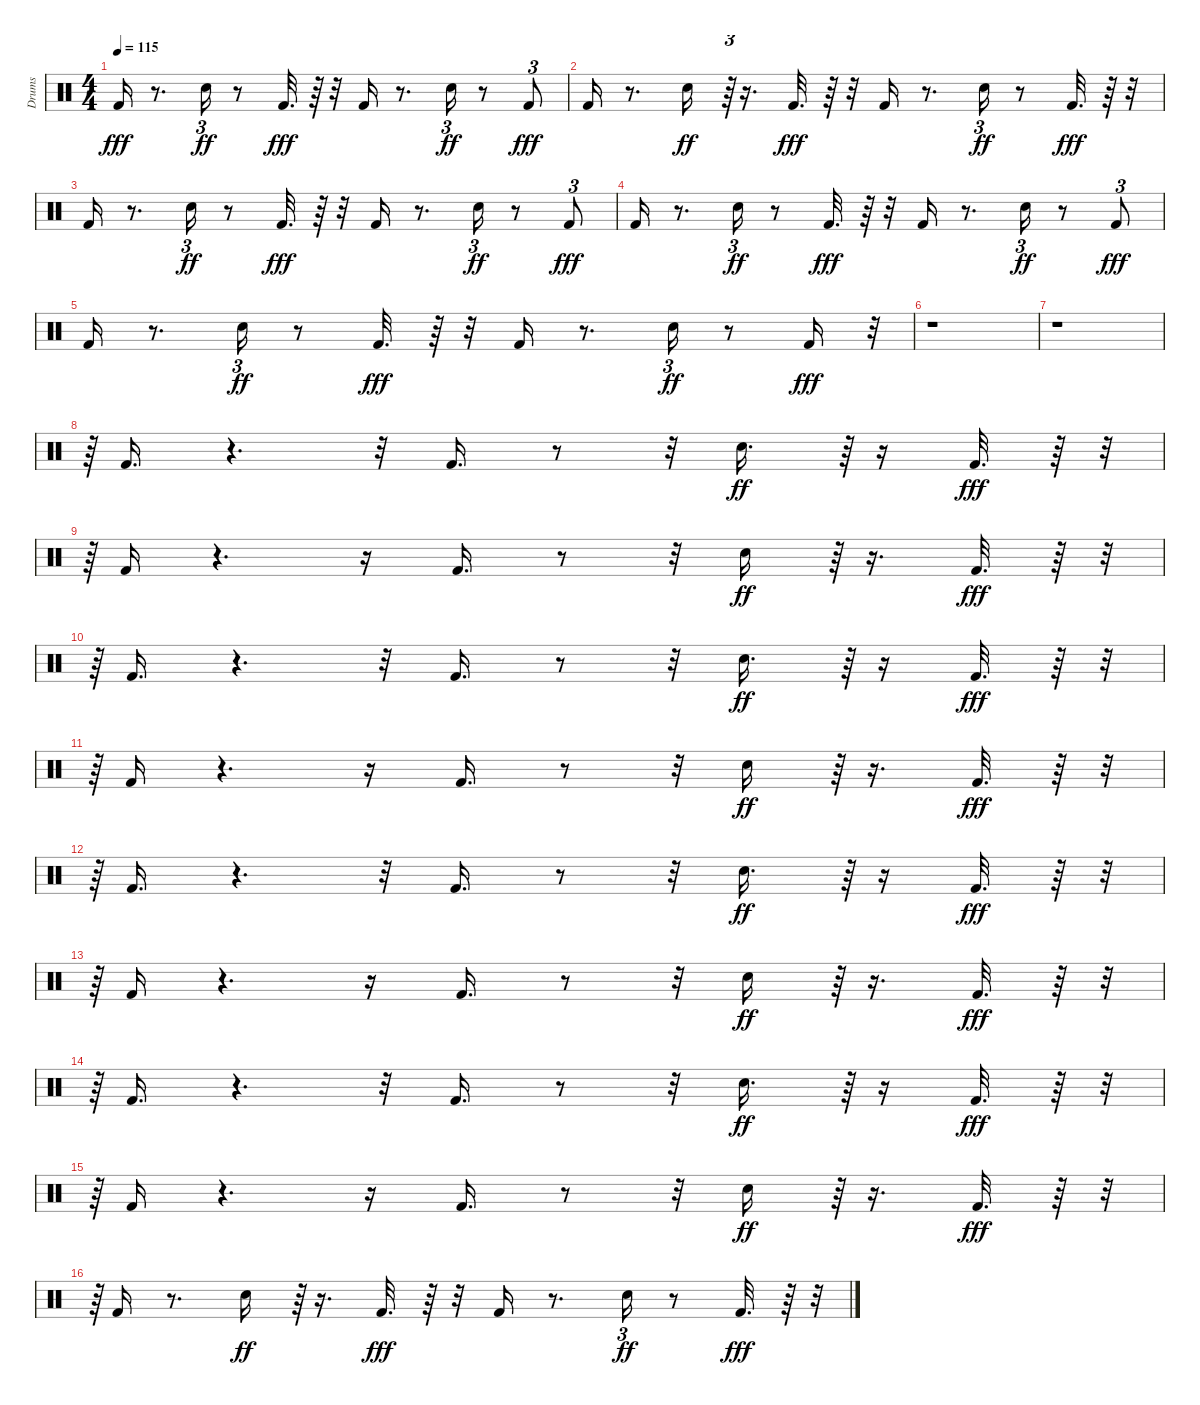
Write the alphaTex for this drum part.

\track ("Drums" "Drums") {instrument percussion}
\staff {score}
\articulation defaults
\ts (4 4)
\tempo 115
\clef neutral
\ks c "Kick (hit) 2".16{dy fff}
r.8{d} "Electric Snare (hit)".16{tu (3 2) dy ff} r.8 "Kick (hit) 2".32{d dy fff} r.64 r.32 "Kick (hit) 2".16 r.8{d} "Electric Snare (hit)".16{tu (3 2) dy ff} r.8 "Kick (hit) 2".8{tu (3 2) dy fff} |
"Kick (hit) 2".16 r.8{d} "Electric Snare (hit)".16{dy ff} r.64{tu (3 2)} r.16{d} "Kick (hit) 2".32{d dy fff} r.64 r.32 "Kick (hit) 2".16 r.8{d} "Electric Snare (hit)".16{tu (3 2) dy ff} r.8 "Kick (hit) 2".32{d dy fff} r.64 r.32 |
"Kick (hit) 2".16 r.8{d} "Electric Snare (hit)".16{tu (3 2) dy ff} r.8 "Kick (hit) 2".32{d dy fff} r.64 r.32 "Kick (hit) 2".16 r.8{d} "Electric Snare (hit)".16{tu (3 2) dy ff} r.8 "Kick (hit) 2".8{tu (3 2) dy fff} |
"Kick (hit) 2".16 r.8{d} "Electric Snare (hit)".16{tu (3 2) dy ff} r.8 "Kick (hit) 2".32{d dy fff} r.64 r.32 "Kick (hit) 2".16 r.8{d} "Electric Snare (hit)".16{tu (3 2) dy ff} r.8 "Kick (hit) 2".8{tu (3 2) dy fff} |
"Kick (hit) 2".16 r.8{d} "Electric Snare (hit)".16{tu (3 2) dy ff} r.8 "Kick (hit) 2".32{d dy fff} r.64 r.32 "Kick (hit) 2".16 r.8{d} "Electric Snare (hit)".16{tu (3 2) dy ff} r.8 "Kick (hit) 2".16{dy fff} r.32{tu (3 2)} |
r.1 |
r.1 |
r.64{tu (3 2)} "Kick (hit) 2".16{d} r.4{d} r.32 "Kick (hit) 2".16{d} r.8 r.32 "Electric Snare (hit)".16{d dy ff} r.64{tu (3 2)} r.16 "Kick (hit) 2".32{d dy fff} r.64 r.32{tu (3 2)} |
r.64{tu (3 2)} "Kick (hit) 2".16 r.4{d} r.16 "Kick (hit) 2".16{d} r.8 r.32 "Electric Snare (hit)".16{dy ff} r.64{tu (3 2)} r.16{d} "Kick (hit) 2".32{d dy fff} r.64 r.32{tu (3 2)} |
r.64{tu (3 2)} "Kick (hit) 2".16{d} r.4{d} r.32 "Kick (hit) 2".16{d} r.8 r.32 "Electric Snare (hit)".16{d dy ff} r.64{tu (3 2)} r.16 "Kick (hit) 2".32{d dy fff} r.64 r.32{tu (3 2)} |
r.64{tu (3 2)} "Kick (hit) 2".16 r.4{d} r.16 "Kick (hit) 2".16{d} r.8 r.32 "Electric Snare (hit)".16{dy ff} r.64{tu (3 2)} r.16{d} "Kick (hit) 2".32{d dy fff} r.64 r.32{tu (3 2)} |
r.64{tu (3 2)} "Kick (hit) 2".16{d} r.4{d} r.32 "Kick (hit) 2".16{d} r.8 r.32 "Electric Snare (hit)".16{d dy ff} r.64{tu (3 2)} r.16 "Kick (hit) 2".32{d dy fff} r.64 r.32{tu (3 2)} |
r.64{tu (3 2)} "Kick (hit) 2".16 r.4{d} r.16 "Kick (hit) 2".16{d} r.8 r.32 "Electric Snare (hit)".16{dy ff} r.64{tu (3 2)} r.16{d} "Kick (hit) 2".32{d dy fff} r.64 r.32{tu (3 2)} |
r.64{tu (3 2)} "Kick (hit) 2".16{d} r.4{d} r.32 "Kick (hit) 2".16{d} r.8 r.32 "Electric Snare (hit)".16{d dy ff} r.64{tu (3 2)} r.16 "Kick (hit) 2".32{d dy fff} r.64 r.32{tu (3 2)} |
r.64{tu (3 2)} "Kick (hit) 2".16 r.4{d} r.16 "Kick (hit) 2".16{d} r.8 r.32 "Electric Snare (hit)".16{dy ff} r.64{tu (3 2)} r.16{d} "Kick (hit) 2".32{d dy fff} r.64 r.32{tu (3 2)} |
r.64{tu (3 2)} "Kick (hit) 2".16 r.8{d} "Electric Snare (hit)".16{dy ff} r.64{tu (3 2)} r.16{d} "Kick (hit) 2".32{d dy fff} r.64 r.32 "Kick (hit) 2".16 r.8{d} "Electric Snare (hit)".16{tu (3 2) dy ff} r.8 "Kick (hit) 2".32{d dy fff} r.64 r.32{tu (3 2)}
